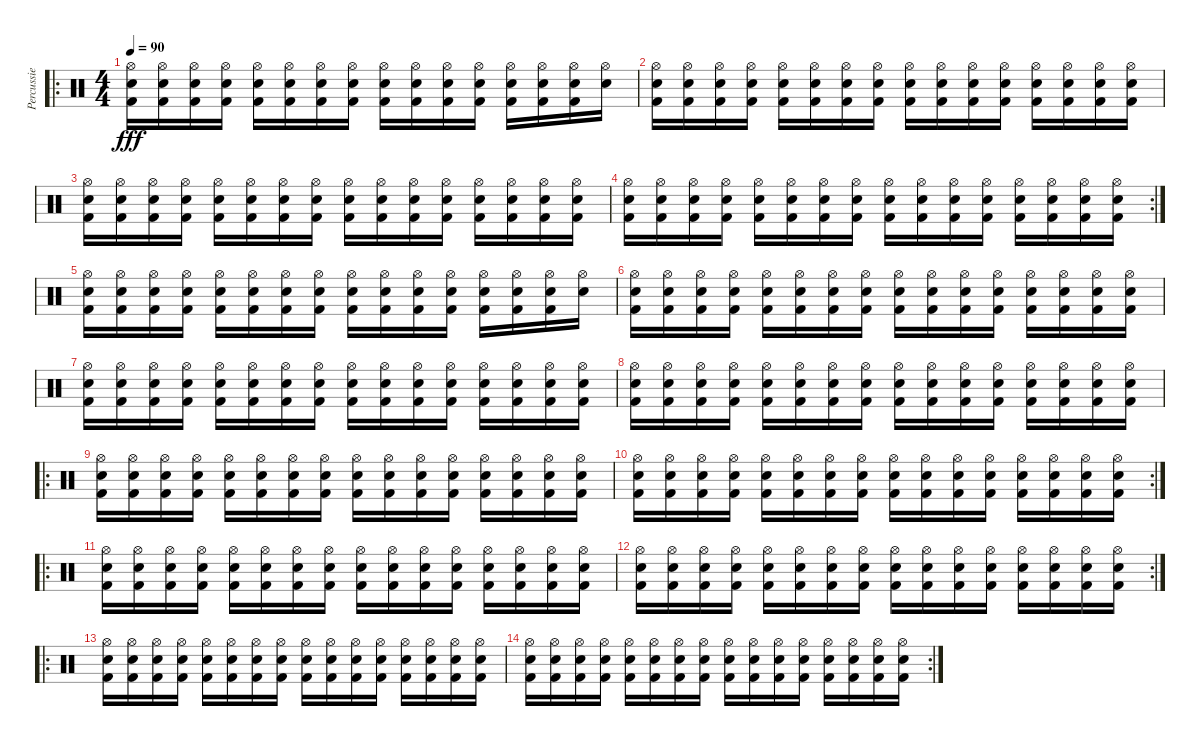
\track ("Percussie" "Percussie") {instrument percussion}
\staff {score}
\articulation defaults
\ro
\ts (4 4)
\tempo 90
\clef neutral
\ks c
("Hi-Hat (open)" "Electric Snare (hit)" "Kick (hit) 2").16{dy fff} ("Hi-Hat (open)" "Electric Snare (hit)" "Kick (hit) 2").16 ("Hi-Hat (open)" "Electric Snare (hit)" "Kick (hit) 2").16 ("Hi-Hat (open)" "Electric Snare (hit)" "Kick (hit) 2").16 ("Hi-Hat (open)" "Electric Snare (hit)" "Kick (hit) 2").16 ("Hi-Hat (open)" "Electric Snare (hit)" "Kick (hit) 2").16 ("Hi-Hat (open)" "Electric Snare (hit)" "Kick (hit) 2").16 ("Hi-Hat (open)" "Electric Snare (hit)" "Kick (hit) 2").16 ("Hi-Hat (open)" "Electric Snare (hit)" "Kick (hit) 2").16 ("Hi-Hat (open)" "Electric Snare (hit)" "Kick (hit) 2").16 ("Hi-Hat (open)" "Electric Snare (hit)" "Kick (hit) 2").16 ("Hi-Hat (open)" "Electric Snare (hit)" "Kick (hit) 2").16 ("Hi-Hat (open)" "Electric Snare (hit)" "Kick (hit) 2").16 ("Hi-Hat (open)" "Electric Snare (hit)" "Kick (hit) 2").16 ("Hi-Hat (open)" "Electric Snare (hit)" "Kick (hit) 2").16 ("Hi-Hat (open)" "Electric Snare (hit)").16 |
("Hi-Hat (open)" "Electric Snare (hit)" "Kick (hit) 2").16 ("Hi-Hat (open)" "Electric Snare (hit)" "Kick (hit) 2").16 ("Hi-Hat (open)" "Electric Snare (hit)" "Kick (hit) 2").16 ("Hi-Hat (open)" "Electric Snare (hit)" "Kick (hit) 2").16 ("Hi-Hat (open)" "Electric Snare (hit)" "Kick (hit) 2").16 ("Hi-Hat (open)" "Electric Snare (hit)" "Kick (hit) 2").16 ("Hi-Hat (open)" "Electric Snare (hit)" "Kick (hit) 2").16 ("Hi-Hat (open)" "Electric Snare (hit)" "Kick (hit) 2").16 ("Hi-Hat (open)" "Electric Snare (hit)" "Kick (hit) 2").16 ("Hi-Hat (open)" "Electric Snare (hit)" "Kick (hit) 2").16 ("Hi-Hat (open)" "Electric Snare (hit)" "Kick (hit) 2").16 ("Hi-Hat (open)" "Electric Snare (hit)" "Kick (hit) 2").16 ("Hi-Hat (open)" "Electric Snare (hit)" "Kick (hit) 2").16 ("Hi-Hat (open)" "Electric Snare (hit)" "Kick (hit) 2").16 ("Hi-Hat (open)" "Electric Snare (hit)" "Kick (hit) 2").16 ("Hi-Hat (open)" "Electric Snare (hit)" "Kick (hit) 2").16 |
("Hi-Hat (open)" "Electric Snare (hit)" "Kick (hit) 2").16 ("Hi-Hat (open)" "Electric Snare (hit)" "Kick (hit) 2").16 ("Hi-Hat (open)" "Electric Snare (hit)" "Kick (hit) 2").16 ("Hi-Hat (open)" "Electric Snare (hit)" "Kick (hit) 2").16 ("Hi-Hat (open)" "Electric Snare (hit)" "Kick (hit) 2").16 ("Hi-Hat (open)" "Electric Snare (hit)" "Kick (hit) 2").16 ("Hi-Hat (open)" "Electric Snare (hit)" "Kick (hit) 2").16 ("Hi-Hat (open)" "Electric Snare (hit)" "Kick (hit) 2").16 ("Hi-Hat (open)" "Electric Snare (hit)" "Kick (hit) 2").16 ("Hi-Hat (open)" "Electric Snare (hit)" "Kick (hit) 2").16 ("Hi-Hat (open)" "Electric Snare (hit)" "Kick (hit) 2").16 ("Hi-Hat (open)" "Electric Snare (hit)" "Kick (hit) 2").16 ("Hi-Hat (open)" "Electric Snare (hit)" "Kick (hit) 2").16 ("Hi-Hat (open)" "Electric Snare (hit)" "Kick (hit) 2").16 ("Hi-Hat (open)" "Electric Snare (hit)" "Kick (hit) 2").16 ("Hi-Hat (open)" "Electric Snare (hit)" "Kick (hit) 2").16 |
\rc 2
("Hi-Hat (open)" "Electric Snare (hit)" "Kick (hit) 2").16 ("Hi-Hat (open)" "Electric Snare (hit)" "Kick (hit) 2").16 ("Hi-Hat (open)" "Electric Snare (hit)" "Kick (hit) 2").16 ("Hi-Hat (open)" "Electric Snare (hit)" "Kick (hit) 2").16 ("Hi-Hat (open)" "Electric Snare (hit)" "Kick (hit) 2").16 ("Hi-Hat (open)" "Electric Snare (hit)" "Kick (hit) 2").16 ("Hi-Hat (open)" "Electric Snare (hit)" "Kick (hit) 2").16 ("Hi-Hat (open)" "Electric Snare (hit)" "Kick (hit) 2").16 ("Hi-Hat (open)" "Electric Snare (hit)" "Kick (hit) 2").16 ("Hi-Hat (open)" "Electric Snare (hit)" "Kick (hit) 2").16 ("Hi-Hat (open)" "Electric Snare (hit)" "Kick (hit) 2").16 ("Hi-Hat (open)" "Electric Snare (hit)" "Kick (hit) 2").16 ("Hi-Hat (open)" "Electric Snare (hit)" "Kick (hit) 2").16 ("Hi-Hat (open)" "Electric Snare (hit)" "Kick (hit) 2").16 ("Hi-Hat (open)" "Electric Snare (hit)" "Kick (hit) 2").16 ("Hi-Hat (open)" "Electric Snare (hit)" "Kick (hit) 2").16 |
("Hi-Hat (open)" "Electric Snare (hit)" "Kick (hit) 2").16 ("Hi-Hat (open)" "Electric Snare (hit)" "Kick (hit) 2").16 ("Hi-Hat (open)" "Electric Snare (hit)" "Kick (hit) 2").16 ("Hi-Hat (open)" "Electric Snare (hit)" "Kick (hit) 2").16 ("Hi-Hat (open)" "Electric Snare (hit)" "Kick (hit) 2").16 ("Hi-Hat (open)" "Electric Snare (hit)" "Kick (hit) 2").16 ("Hi-Hat (open)" "Electric Snare (hit)" "Kick (hit) 2").16 ("Hi-Hat (open)" "Electric Snare (hit)" "Kick (hit) 2").16 ("Hi-Hat (open)" "Electric Snare (hit)" "Kick (hit) 2").16 ("Hi-Hat (open)" "Electric Snare (hit)" "Kick (hit) 2").16 ("Hi-Hat (open)" "Electric Snare (hit)" "Kick (hit) 2").16 ("Hi-Hat (open)" "Electric Snare (hit)" "Kick (hit) 2").16 ("Hi-Hat (open)" "Electric Snare (hit)" "Kick (hit) 2").16 ("Hi-Hat (open)" "Electric Snare (hit)" "Kick (hit) 2").16 ("Hi-Hat (open)" "Electric Snare (hit)" "Kick (hit) 2").16 ("Hi-Hat (open)" "Electric Snare (hit)").16 |
("Hi-Hat (open)" "Electric Snare (hit)" "Kick (hit) 2").16 ("Hi-Hat (open)" "Electric Snare (hit)" "Kick (hit) 2").16 ("Hi-Hat (open)" "Electric Snare (hit)" "Kick (hit) 2").16 ("Hi-Hat (open)" "Electric Snare (hit)" "Kick (hit) 2").16 ("Hi-Hat (open)" "Electric Snare (hit)" "Kick (hit) 2").16 ("Hi-Hat (open)" "Electric Snare (hit)" "Kick (hit) 2").16 ("Hi-Hat (open)" "Electric Snare (hit)" "Kick (hit) 2").16 ("Hi-Hat (open)" "Electric Snare (hit)" "Kick (hit) 2").16 ("Hi-Hat (open)" "Electric Snare (hit)" "Kick (hit) 2").16 ("Hi-Hat (open)" "Electric Snare (hit)" "Kick (hit) 2").16 ("Hi-Hat (open)" "Electric Snare (hit)" "Kick (hit) 2").16 ("Hi-Hat (open)" "Electric Snare (hit)" "Kick (hit) 2").16 ("Hi-Hat (open)" "Electric Snare (hit)" "Kick (hit) 2").16 ("Hi-Hat (open)" "Electric Snare (hit)" "Kick (hit) 2").16 ("Hi-Hat (open)" "Electric Snare (hit)" "Kick (hit) 2").16 ("Hi-Hat (open)" "Electric Snare (hit)" "Kick (hit) 2").16 |
("Hi-Hat (open)" "Electric Snare (hit)" "Kick (hit) 2").16 ("Hi-Hat (open)" "Electric Snare (hit)" "Kick (hit) 2").16 ("Hi-Hat (open)" "Electric Snare (hit)" "Kick (hit) 2").16 ("Hi-Hat (open)" "Electric Snare (hit)" "Kick (hit) 2").16 ("Hi-Hat (open)" "Electric Snare (hit)" "Kick (hit) 2").16 ("Hi-Hat (open)" "Electric Snare (hit)" "Kick (hit) 2").16 ("Hi-Hat (open)" "Electric Snare (hit)" "Kick (hit) 2").16 ("Hi-Hat (open)" "Electric Snare (hit)" "Kick (hit) 2").16 ("Hi-Hat (open)" "Electric Snare (hit)" "Kick (hit) 2").16 ("Hi-Hat (open)" "Electric Snare (hit)" "Kick (hit) 2").16 ("Hi-Hat (open)" "Electric Snare (hit)" "Kick (hit) 2").16 ("Hi-Hat (open)" "Electric Snare (hit)" "Kick (hit) 2").16 ("Hi-Hat (open)" "Electric Snare (hit)" "Kick (hit) 2").16 ("Hi-Hat (open)" "Electric Snare (hit)" "Kick (hit) 2").16 ("Hi-Hat (open)" "Electric Snare (hit)" "Kick (hit) 2").16 ("Hi-Hat (open)" "Electric Snare (hit)" "Kick (hit) 2").16 |
("Hi-Hat (open)" "Electric Snare (hit)" "Kick (hit) 2").16 ("Hi-Hat (open)" "Electric Snare (hit)" "Kick (hit) 2").16 ("Hi-Hat (open)" "Electric Snare (hit)" "Kick (hit) 2").16 ("Hi-Hat (open)" "Electric Snare (hit)" "Kick (hit) 2").16 ("Hi-Hat (open)" "Electric Snare (hit)" "Kick (hit) 2").16 ("Hi-Hat (open)" "Electric Snare (hit)" "Kick (hit) 2").16 ("Hi-Hat (open)" "Electric Snare (hit)" "Kick (hit) 2").16 ("Hi-Hat (open)" "Electric Snare (hit)" "Kick (hit) 2").16 ("Hi-Hat (open)" "Electric Snare (hit)" "Kick (hit) 2").16 ("Hi-Hat (open)" "Electric Snare (hit)" "Kick (hit) 2").16 ("Hi-Hat (open)" "Electric Snare (hit)" "Kick (hit) 2").16 ("Hi-Hat (open)" "Electric Snare (hit)" "Kick (hit) 2").16 ("Hi-Hat (open)" "Electric Snare (hit)" "Kick (hit) 2").16 ("Hi-Hat (open)" "Electric Snare (hit)" "Kick (hit) 2").16 ("Hi-Hat (open)" "Electric Snare (hit)" "Kick (hit) 2").16 ("Hi-Hat (open)" "Electric Snare (hit)" "Kick (hit) 2").16 |
\ro
("Hi-Hat (open)" "Electric Snare (hit)" "Kick (hit) 2").16 ("Hi-Hat (open)" "Electric Snare (hit)" "Kick (hit) 2").16 ("Hi-Hat (open)" "Electric Snare (hit)" "Kick (hit) 2").16 ("Hi-Hat (open)" "Electric Snare (hit)" "Kick (hit) 2").16 ("Hi-Hat (open)" "Electric Snare (hit)" "Kick (hit) 2").16 ("Hi-Hat (open)" "Electric Snare (hit)" "Kick (hit) 2").16 ("Hi-Hat (open)" "Electric Snare (hit)" "Kick (hit) 2").16 ("Hi-Hat (open)" "Electric Snare (hit)" "Kick (hit) 2").16 ("Hi-Hat (open)" "Electric Snare (hit)" "Kick (hit) 2").16 ("Hi-Hat (open)" "Electric Snare (hit)" "Kick (hit) 2").16 ("Hi-Hat (open)" "Electric Snare (hit)" "Kick (hit) 2").16 ("Hi-Hat (open)" "Electric Snare (hit)" "Kick (hit) 2").16 ("Hi-Hat (open)" "Electric Snare (hit)" "Kick (hit) 2").16 ("Hi-Hat (open)" "Electric Snare (hit)" "Kick (hit) 2").16 ("Hi-Hat (open)" "Electric Snare (hit)" "Kick (hit) 2").16 ("Hi-Hat (open)" "Electric Snare (hit)" "Kick (hit) 2").16 |
\rc 2
("Hi-Hat (open)" "Electric Snare (hit)" "Kick (hit) 2").16 ("Hi-Hat (open)" "Electric Snare (hit)" "Kick (hit) 2").16 ("Hi-Hat (open)" "Electric Snare (hit)" "Kick (hit) 2").16 ("Hi-Hat (open)" "Electric Snare (hit)" "Kick (hit) 2").16 ("Hi-Hat (open)" "Electric Snare (hit)" "Kick (hit) 2").16 ("Hi-Hat (open)" "Electric Snare (hit)" "Kick (hit) 2").16 ("Hi-Hat (open)" "Electric Snare (hit)" "Kick (hit) 2").16 ("Hi-Hat (open)" "Electric Snare (hit)" "Kick (hit) 2").16 ("Hi-Hat (open)" "Electric Snare (hit)" "Kick (hit) 2").16 ("Hi-Hat (open)" "Electric Snare (hit)" "Kick (hit) 2").16 ("Hi-Hat (open)" "Electric Snare (hit)" "Kick (hit) 2").16 ("Hi-Hat (open)" "Electric Snare (hit)" "Kick (hit) 2").16 ("Hi-Hat (open)" "Electric Snare (hit)" "Kick (hit) 2").16 ("Hi-Hat (open)" "Electric Snare (hit)" "Kick (hit) 2").16 ("Hi-Hat (open)" "Electric Snare (hit)" "Kick (hit) 2").16 ("Hi-Hat (open)" "Electric Snare (hit)" "Kick (hit) 2").16 |
\ro
("Hi-Hat (open)" "Electric Snare (hit)" "Kick (hit) 2").16 ("Hi-Hat (open)" "Electric Snare (hit)" "Kick (hit) 2").16 ("Hi-Hat (open)" "Electric Snare (hit)" "Kick (hit) 2").16 ("Hi-Hat (open)" "Electric Snare (hit)" "Kick (hit) 2").16 ("Hi-Hat (open)" "Electric Snare (hit)" "Kick (hit) 2").16 ("Hi-Hat (open)" "Electric Snare (hit)" "Kick (hit) 2").16 ("Hi-Hat (open)" "Electric Snare (hit)" "Kick (hit) 2").16 ("Hi-Hat (open)" "Electric Snare (hit)" "Kick (hit) 2").16 ("Hi-Hat (open)" "Electric Snare (hit)" "Kick (hit) 2").16 ("Hi-Hat (open)" "Electric Snare (hit)" "Kick (hit) 2").16 ("Hi-Hat (open)" "Electric Snare (hit)" "Kick (hit) 2").16 ("Hi-Hat (open)" "Electric Snare (hit)" "Kick (hit) 2").16 ("Hi-Hat (open)" "Electric Snare (hit)" "Kick (hit) 2").16 ("Hi-Hat (open)" "Electric Snare (hit)" "Kick (hit) 2").16 ("Hi-Hat (open)" "Electric Snare (hit)" "Kick (hit) 2").16 ("Hi-Hat (open)" "Electric Snare (hit)" "Kick (hit) 2").16 |
\rc 2
("Hi-Hat (open)" "Electric Snare (hit)" "Kick (hit) 2").16 ("Hi-Hat (open)" "Electric Snare (hit)" "Kick (hit) 2").16 ("Hi-Hat (open)" "Electric Snare (hit)" "Kick (hit) 2").16 ("Hi-Hat (open)" "Electric Snare (hit)" "Kick (hit) 2").16 ("Hi-Hat (open)" "Electric Snare (hit)" "Kick (hit) 2").16 ("Hi-Hat (open)" "Electric Snare (hit)" "Kick (hit) 2").16 ("Hi-Hat (open)" "Electric Snare (hit)" "Kick (hit) 2").16 ("Hi-Hat (open)" "Electric Snare (hit)" "Kick (hit) 2").16 ("Hi-Hat (open)" "Electric Snare (hit)" "Kick (hit) 2").16 ("Hi-Hat (open)" "Electric Snare (hit)" "Kick (hit) 2").16 ("Hi-Hat (open)" "Electric Snare (hit)" "Kick (hit) 2").16 ("Hi-Hat (open)" "Electric Snare (hit)" "Kick (hit) 2").16 ("Hi-Hat (open)" "Electric Snare (hit)" "Kick (hit) 2").16 ("Hi-Hat (open)" "Electric Snare (hit)" "Kick (hit) 2").16 ("Hi-Hat (open)" "Electric Snare (hit)" "Kick (hit) 2").16 ("Hi-Hat (open)" "Electric Snare (hit)" "Kick (hit) 2").16 |
\ro
("Hi-Hat (open)" "Electric Snare (hit)" "Kick (hit) 2").16 ("Hi-Hat (open)" "Electric Snare (hit)" "Kick (hit) 2").16 ("Hi-Hat (open)" "Electric Snare (hit)" "Kick (hit) 2").16 ("Hi-Hat (open)" "Electric Snare (hit)" "Kick (hit) 2").16 ("Hi-Hat (open)" "Electric Snare (hit)" "Kick (hit) 2").16 ("Hi-Hat (open)" "Electric Snare (hit)" "Kick (hit) 2").16 ("Hi-Hat (open)" "Electric Snare (hit)" "Kick (hit) 2").16 ("Hi-Hat (open)" "Electric Snare (hit)" "Kick (hit) 2").16 ("Hi-Hat (open)" "Electric Snare (hit)" "Kick (hit) 2").16 ("Hi-Hat (open)" "Electric Snare (hit)" "Kick (hit) 2").16 ("Hi-Hat (open)" "Electric Snare (hit)" "Kick (hit) 2").16 ("Hi-Hat (open)" "Electric Snare (hit)" "Kick (hit) 2").16 ("Hi-Hat (open)" "Electric Snare (hit)" "Kick (hit) 2").16 ("Hi-Hat (open)" "Electric Snare (hit)" "Kick (hit) 2").16 ("Hi-Hat (open)" "Electric Snare (hit)" "Kick (hit) 2").16 ("Hi-Hat (open)" "Electric Snare (hit)" "Kick (hit) 2").16 |
\rc 2
("Hi-Hat (open)" "Electric Snare (hit)" "Kick (hit) 2").16 ("Hi-Hat (open)" "Electric Snare (hit)" "Kick (hit) 2").16 ("Hi-Hat (open)" "Electric Snare (hit)" "Kick (hit) 2").16 ("Hi-Hat (open)" "Electric Snare (hit)" "Kick (hit) 2").16 ("Hi-Hat (open)" "Electric Snare (hit)" "Kick (hit) 2").16 ("Hi-Hat (open)" "Electric Snare (hit)" "Kick (hit) 2").16 ("Hi-Hat (open)" "Electric Snare (hit)" "Kick (hit) 2").16 ("Hi-Hat (open)" "Electric Snare (hit)" "Kick (hit) 2").16 ("Hi-Hat (open)" "Electric Snare (hit)" "Kick (hit) 2").16 ("Hi-Hat (open)" "Electric Snare (hit)" "Kick (hit) 2").16 ("Hi-Hat (open)" "Electric Snare (hit)" "Kick (hit) 2").16 ("Hi-Hat (open)" "Electric Snare (hit)" "Kick (hit) 2").16 ("Hi-Hat (open)" "Electric Snare (hit)" "Kick (hit) 2").16 ("Hi-Hat (open)" "Electric Snare (hit)" "Kick (hit) 2").16 ("Hi-Hat (open)" "Electric Snare (hit)" "Kick (hit) 2").16 ("Hi-Hat (open)" "Electric Snare (hit)" "Kick (hit) 2").16
